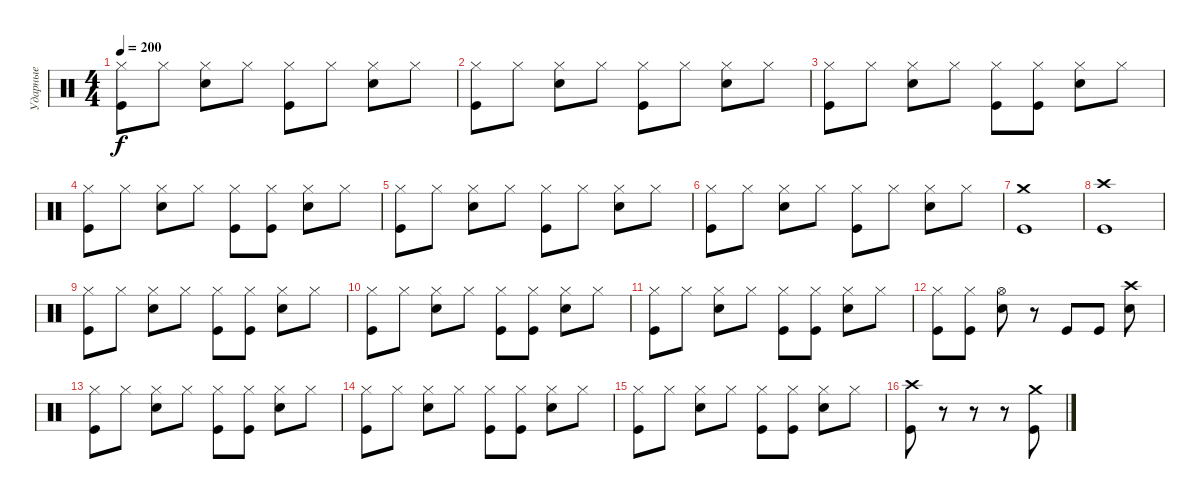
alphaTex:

\track ("Ударные" "Ударные") {instrument percussion}
\staff {score}
\articulation defaults
\ts (4 4)
\tempo 200
\clef neutral
\ks c
("Kick (hit)" "Hi-Hat (closed)").8{dy f} "Hi-Hat (closed)".8 ("Electric Snare (hit)" "Hi-Hat (closed)").8 "Hi-Hat (closed)".8 ("Kick (hit)" "Hi-Hat (closed)").8 "Hi-Hat (closed)".8 ("Electric Snare (hit)" "Hi-Hat (closed)").8 "Hi-Hat (closed)".8 |
("Kick (hit)" "Hi-Hat (closed)").8 "Hi-Hat (closed)".8 ("Electric Snare (hit)" "Hi-Hat (closed)").8 "Hi-Hat (closed)".8 ("Kick (hit)" "Hi-Hat (closed)").8 "Hi-Hat (closed)".8 ("Electric Snare (hit)" "Hi-Hat (closed)").8 "Hi-Hat (closed)".8 |
("Kick (hit)" "Hi-Hat (closed)").8 "Hi-Hat (closed)".8 ("Electric Snare (hit)" "Hi-Hat (closed)").8 "Hi-Hat (closed)".8 ("Kick (hit)" "Hi-Hat (closed)").8 ("Kick (hit)" "Hi-Hat (closed)").8 ("Electric Snare (hit)" "Hi-Hat (closed)").8 "Hi-Hat (closed)".8 |
("Kick (hit)" "Hi-Hat (closed)").8 "Hi-Hat (closed)".8 ("Electric Snare (hit)" "Hi-Hat (closed)").8 "Hi-Hat (closed)".8 ("Kick (hit)" "Hi-Hat (closed)").8 ("Kick (hit)" "Hi-Hat (closed)").8 ("Electric Snare (hit)" "Hi-Hat (closed)").8 "Hi-Hat (closed)".8 |
("Kick (hit)" "Hi-Hat (closed)").8 "Hi-Hat (closed)".8 ("Electric Snare (hit)" "Hi-Hat (closed)").8 "Hi-Hat (closed)".8 ("Kick (hit)" "Hi-Hat (closed)").8 "Hi-Hat (closed)".8 ("Electric Snare (hit)" "Hi-Hat (closed)").8 "Hi-Hat (closed)".8 |
("Kick (hit)" "Hi-Hat (closed)").8 "Hi-Hat (closed)".8 ("Electric Snare (hit)" "Hi-Hat (closed)").8 "Hi-Hat (closed)".8 ("Kick (hit)" "Hi-Hat (closed)").8 "Hi-Hat (closed)".8 ("Electric Snare (hit)" "Hi-Hat (closed)").8 "Hi-Hat (closed)".8 |
("Kick (hit)" "Crash medium (hit)").1 |
("Kick (hit)" "Crash high (hit)").1 |
("Kick (hit)" "Hi-Hat (closed)").8 "Hi-Hat (closed)".8 ("Electric Snare (hit)" "Hi-Hat (closed)").8 "Hi-Hat (closed)".8 ("Kick (hit)" "Hi-Hat (closed)").8 ("Kick (hit)" "Hi-Hat (closed)").8 ("Electric Snare (hit)" "Hi-Hat (closed)").8 "Hi-Hat (closed)".8 |
("Kick (hit)" "Hi-Hat (closed)").8 "Hi-Hat (closed)".8 ("Electric Snare (hit)" "Hi-Hat (closed)").8 "Hi-Hat (closed)".8 ("Kick (hit)" "Hi-Hat (closed)").8 ("Kick (hit)" "Hi-Hat (closed)").8 ("Electric Snare (hit)" "Hi-Hat (closed)").8 "Hi-Hat (closed)".8 |
("Kick (hit)" "Hi-Hat (closed)").8 "Hi-Hat (closed)".8 ("Electric Snare (hit)" "Hi-Hat (closed)").8 "Hi-Hat (closed)".8 ("Kick (hit)" "Hi-Hat (closed)").8 ("Kick (hit)" "Hi-Hat (closed)").8 ("Electric Snare (hit)" "Hi-Hat (closed)").8 "Hi-Hat (closed)".8 |
("Kick (hit)" "Hi-Hat (closed)").8 ("Kick (hit)" "Hi-Hat (closed)").8 ("Electric Snare (hit)" "Hi-Hat (open)").8 r.8 "Kick (hit)".8 "Kick (hit)".8 ("Electric Snare (hit)" "Crash high (hit)").8 |
("Kick (hit)" "Hi-Hat (closed)").8 "Hi-Hat (closed)".8 ("Electric Snare (hit)" "Hi-Hat (closed)").8 "Hi-Hat (closed)".8 ("Kick (hit)" "Hi-Hat (closed)").8 ("Kick (hit)" "Hi-Hat (closed)").8 ("Electric Snare (hit)" "Hi-Hat (closed)").8 "Hi-Hat (closed)".8 |
("Kick (hit)" "Hi-Hat (closed)").8 "Hi-Hat (closed)".8 ("Electric Snare (hit)" "Hi-Hat (closed)").8 "Hi-Hat (closed)".8 ("Kick (hit)" "Hi-Hat (closed)").8 ("Kick (hit)" "Hi-Hat (closed)").8 ("Electric Snare (hit)" "Hi-Hat (closed)").8 "Hi-Hat (closed)".8 |
("Kick (hit)" "Hi-Hat (closed)").8 "Hi-Hat (closed)".8 ("Electric Snare (hit)" "Hi-Hat (closed)").8 "Hi-Hat (closed)".8 ("Kick (hit)" "Hi-Hat (closed)").8 ("Kick (hit)" "Hi-Hat (closed)").8 ("Electric Snare (hit)" "Hi-Hat (closed)").8 "Hi-Hat (closed)".8 |
("Kick (hit)" "Crash high (hit)").8 r.8 r.8 r.8 ("Kick (hit)" "Crash medium (hit)").8
